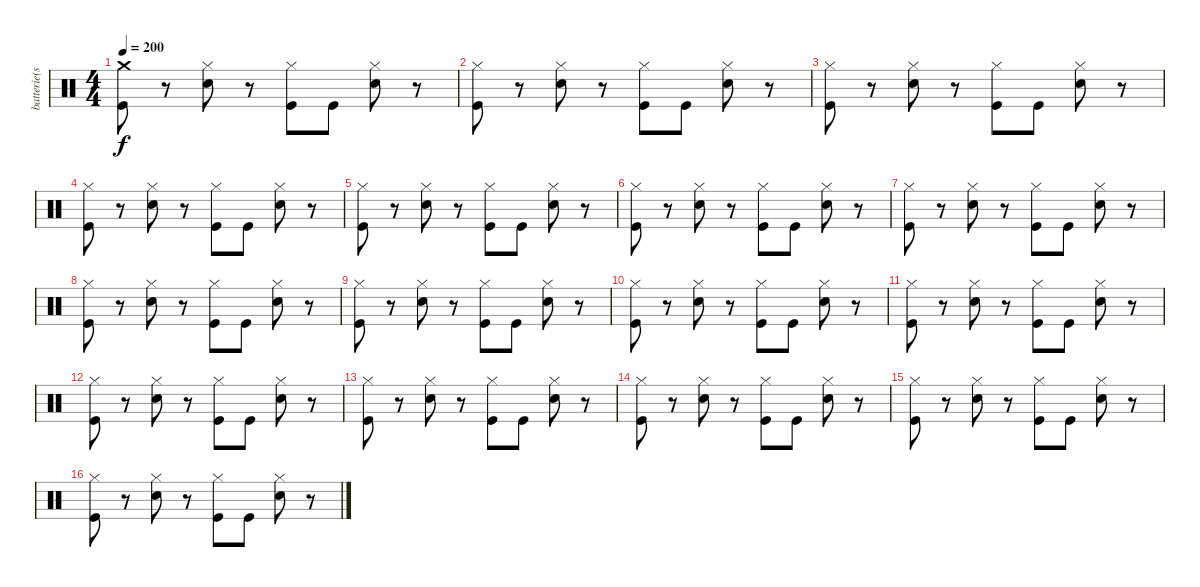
\track ("batterie(scott)" "batterie(s") {instrument percussion}
\staff {score}
\articulation defaults
\ts (4 4)
\tempo 200
\clef neutral
\ks c
("Crash medium (hit)" "Kick (hit)").8{dy f} r.8 ("Hi-Hat (closed)" "Snare (hit) 2").8 r.8 ("Hi-Hat (closed)" "Kick (hit)").8 "Kick (hit)".8 ("Hi-Hat (closed)" "Snare (hit) 2").8 r.8 |
("Hi-Hat (closed)" "Kick (hit)").8 r.8 ("Hi-Hat (closed)" "Snare (hit) 2").8 r.8 ("Hi-Hat (closed)" "Kick (hit)").8 "Kick (hit)".8 ("Hi-Hat (closed)" "Snare (hit) 2").8 r.8 |
("Hi-Hat (closed)" "Kick (hit)").8 r.8 ("Hi-Hat (closed)" "Snare (hit) 2").8 r.8 ("Hi-Hat (closed)" "Kick (hit)").8 "Kick (hit)".8 ("Hi-Hat (closed)" "Snare (hit) 2").8 r.8 |
("Hi-Hat (closed)" "Kick (hit)").8 r.8 ("Hi-Hat (closed)" "Snare (hit) 2").8 r.8 ("Hi-Hat (closed)" "Kick (hit)").8 "Kick (hit)".8 ("Hi-Hat (closed)" "Snare (hit) 2").8 r.8 |
("Hi-Hat (closed)" "Kick (hit)").8 r.8 ("Hi-Hat (closed)" "Snare (hit) 2").8 r.8 ("Hi-Hat (closed)" "Kick (hit)").8 "Kick (hit)".8 ("Hi-Hat (closed)" "Snare (hit) 2").8 r.8 |
("Hi-Hat (closed)" "Kick (hit)").8 r.8 ("Hi-Hat (closed)" "Snare (hit) 2").8 r.8 ("Hi-Hat (closed)" "Kick (hit)").8 "Kick (hit)".8 ("Hi-Hat (closed)" "Snare (hit) 2").8 r.8 |
("Hi-Hat (closed)" "Kick (hit)").8 r.8 ("Hi-Hat (closed)" "Snare (hit) 2").8 r.8 ("Hi-Hat (closed)" "Kick (hit)").8 "Kick (hit)".8 ("Hi-Hat (closed)" "Snare (hit) 2").8 r.8 |
("Hi-Hat (closed)" "Kick (hit)").8 r.8 ("Hi-Hat (closed)" "Snare (hit) 2").8 r.8 ("Hi-Hat (closed)" "Kick (hit)").8 "Kick (hit)".8 ("Hi-Hat (closed)" "Snare (hit) 2").8 r.8 |
("Hi-Hat (closed)" "Kick (hit)").8 r.8 ("Hi-Hat (closed)" "Snare (hit) 2").8 r.8 ("Hi-Hat (closed)" "Kick (hit)").8 "Kick (hit)".8 ("Hi-Hat (closed)" "Snare (hit) 2").8 r.8 |
("Hi-Hat (closed)" "Kick (hit)").8 r.8 ("Hi-Hat (closed)" "Snare (hit) 2").8 r.8 ("Hi-Hat (closed)" "Kick (hit)").8 "Kick (hit)".8 ("Hi-Hat (closed)" "Snare (hit) 2").8 r.8 |
("Hi-Hat (closed)" "Kick (hit)").8 r.8 ("Hi-Hat (closed)" "Snare (hit) 2").8 r.8 ("Hi-Hat (closed)" "Kick (hit)").8 "Kick (hit)".8 ("Hi-Hat (closed)" "Snare (hit) 2").8 r.8 |
("Hi-Hat (closed)" "Kick (hit)").8 r.8 ("Hi-Hat (closed)" "Snare (hit) 2").8 r.8 ("Hi-Hat (closed)" "Kick (hit)").8 "Kick (hit)".8 ("Hi-Hat (closed)" "Snare (hit) 2").8 r.8 |
("Hi-Hat (closed)" "Kick (hit)").8 r.8 ("Hi-Hat (closed)" "Snare (hit) 2").8 r.8 ("Hi-Hat (closed)" "Kick (hit)").8 "Kick (hit)".8 ("Hi-Hat (closed)" "Snare (hit) 2").8 r.8 |
("Hi-Hat (closed)" "Kick (hit)").8 r.8 ("Hi-Hat (closed)" "Snare (hit) 2").8 r.8 ("Hi-Hat (closed)" "Kick (hit)").8 "Kick (hit)".8 ("Hi-Hat (closed)" "Snare (hit) 2").8 r.8 |
("Hi-Hat (closed)" "Kick (hit)").8 r.8 ("Hi-Hat (closed)" "Snare (hit) 2").8 r.8 ("Hi-Hat (closed)" "Kick (hit)").8 "Kick (hit)".8 ("Hi-Hat (closed)" "Snare (hit) 2").8 r.8 |
("Hi-Hat (closed)" "Kick (hit)").8 r.8 ("Hi-Hat (closed)" "Snare (hit) 2").8 r.8 ("Hi-Hat (closed)" "Kick (hit)").8 "Kick (hit)".8 ("Hi-Hat (closed)" "Snare (hit) 2").8 r.8
